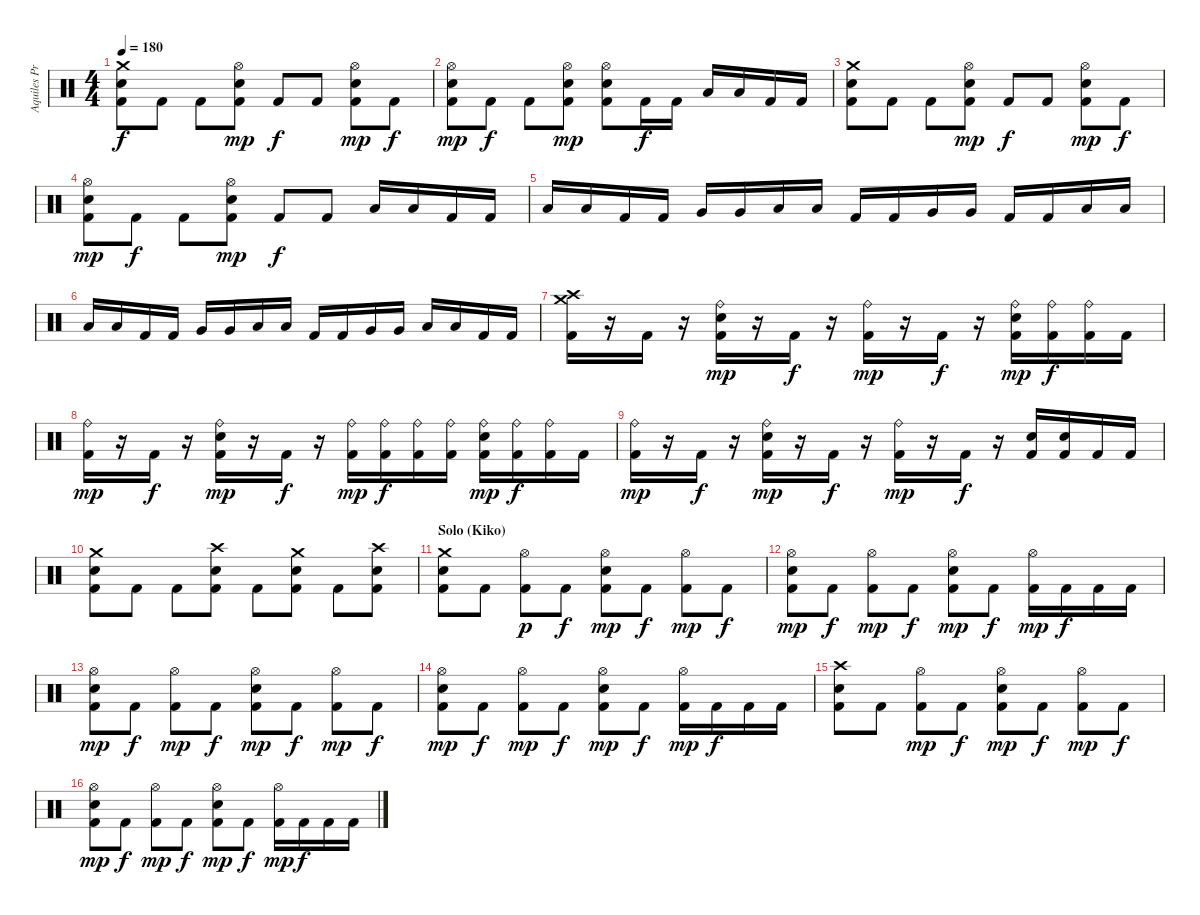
\track ("Aquiles Priester" "Aquiles Pr") {instrument percussion}
\staff {score}
\articulation defaults
\ts (4 4)
\tempo 180
\clef neutral
\ks c
("Crash medium (hit)" "Snare (hit) 2" "Kick (hit) 2").8{dy f} "Kick (hit) 2".8 "Kick (hit) 2".8 ("Hi-Hat (open)" "Snare (hit) 2" "Kick (hit) 2").8{dy mp} "Kick (hit) 2".8{dy f} "Kick (hit) 2".8 ("Hi-Hat (open)" "Snare (hit) 2" "Kick (hit) 2").8{dy mp} "Kick (hit) 2".8{dy f} |
("Hi-Hat (open)" "Snare (hit) 2" "Kick (hit) 2").8{dy mp} "Kick (hit) 2".8{dy f} "Kick (hit) 2".8 ("Hi-Hat (open)" "Snare (hit) 2" "Kick (hit) 2").8{dy mp} ("Hi-Hat (open)" "Snare (hit) 2" "Kick (hit) 2").8 "Kick (hit) 2".16{dy f} "Kick (hit) 2".16 "Low Tom (hit)".16 "Low Tom (hit)".16 "Kick (hit) 2".16 "Kick (hit) 2".16 |
("Crash medium (hit)" "Snare (hit) 2" "Kick (hit) 2").8 "Kick (hit) 2".8 "Kick (hit) 2".8 ("Hi-Hat (open)" "Snare (hit) 2" "Kick (hit) 2").8{dy mp} "Kick (hit) 2".8{dy f} "Kick (hit) 2".8 ("Hi-Hat (open)" "Snare (hit) 2" "Kick (hit) 2").8{dy mp} "Kick (hit) 2".8{dy f} |
("Hi-Hat (open)" "Snare (hit) 2" "Kick (hit) 2").8{dy mp} "Kick (hit) 2".8{dy f} "Kick (hit) 2".8 ("Hi-Hat (open)" "Snare (hit) 2" "Kick (hit) 2").8{dy mp} "Kick (hit) 2".8{dy f} "Kick (hit) 2".8 "Low Tom (hit)".16 "Low Tom (hit)".16 "Kick (hit) 2".16 "Kick (hit) 2".16 |
"Low Tom (hit)".16 "Low Tom (hit)".16 "Kick (hit) 2".16 "Kick (hit) 2".16 "Very Low Tom (hit)".16 "Very Low Tom (hit)".16 "Low Floor Tom (hit)".16 "Low Floor Tom (hit)".16 "Kick (hit) 2".16 "Kick (hit) 2".16 "Very Low Tom (hit)".16 "Very Low Tom (hit)".16 "Kick (hit) 2".16 "Kick (hit) 2".16 "Low Floor Tom (hit)".16 "Low Floor Tom (hit)".16 |
"Low Tom (hit)".16 "Low Tom (hit)".16 "Kick (hit) 2".16 "Kick (hit) 2".16 "Very Low Tom (hit)".16 "Very Low Tom (hit)".16 "Low Floor Tom (hit)".16 "Low Floor Tom (hit)".16 "Kick (hit) 2".16 "Kick (hit) 2".16 "Very Low Tom (hit)".16 "Very Low Tom (hit)".16 "Low Floor Tom (hit)".16 "Low Floor Tom (hit)".16 "Kick (hit) 2".16 "Kick (hit) 2".16 |
("Crash high (hit)" "Crash medium (hit)" "Kick (hit) 2").16 r.16 "Kick (hit) 2".16 r.16 ("Ride (bell)" "Snare (hit) 2" "Kick (hit) 2").16{dy mp} r.16 "Kick (hit) 2".16{dy f} r.16 ("Ride (bell)" "Kick (hit) 2").16{dy mp} r.16 "Kick (hit) 2".16{dy f} r.16 ("Ride (bell)" "Snare (hit) 2" "Kick (hit) 2").16{dy mp} ("Ride (bell)" "Kick (hit) 2").16{dy f} ("Ride (bell)" "Kick (hit) 2").16 "Kick (hit) 2".16 |
("Ride (bell)" "Kick (hit) 2").16{dy mp} r.16 "Kick (hit) 2".16{dy f} r.16 ("Ride (bell)" "Snare (hit) 2" "Kick (hit) 2").16{dy mp} r.16 "Kick (hit) 2".16{dy f} r.16 ("Ride (bell)" "Kick (hit) 2").16{dy mp} ("Ride (bell)" "Kick (hit) 2").16{dy f} ("Ride (bell)" "Kick (hit) 2").16 ("Ride (bell)" "Kick (hit) 2").16 ("Ride (bell)" "Snare (hit) 2" "Kick (hit) 2").16{dy mp} ("Ride (bell)" "Kick (hit) 2").16{dy f} ("Ride (bell)" "Kick (hit) 2").16 "Kick (hit) 2".16 |
("Ride (bell)" "Kick (hit) 2").16{dy mp} r.16 "Kick (hit) 2".16{dy f} r.16 ("Ride (bell)" "Snare (hit) 2" "Kick (hit) 2").16{dy mp} r.16 "Kick (hit) 2".16{dy f} r.16 ("Ride (bell)" "Kick (hit) 2").16{dy mp} r.16 "Kick (hit) 2".16{dy f} r.16 ("Snare (hit) 2" "Kick (hit) 2").16 ("Snare (hit) 2" "Kick (hit) 2").16 "Kick (hit) 2".16 "Kick (hit) 2".16 |
("Crash medium (hit)" "Snare (hit) 2" "Kick (hit) 2").8 "Kick (hit) 2".8 "Kick (hit) 2".8 ("Crash high (hit)" "Snare (hit) 2" "Kick (hit) 2").8 "Kick (hit) 2".8 ("Crash medium (hit)" "Snare (hit) 2" "Kick (hit) 2").8 "Kick (hit) 2".8 ("Crash high (hit)" "Snare (hit) 2" "Kick (hit) 2").8 |
\section ("" "Solo (Kiko)")
("Crash medium (hit)" "Snare (hit) 2" "Kick (hit) 2").8 "Kick (hit) 2".8 ("Hi-Hat (open)" "Kick (hit) 2").8{dy p} "Kick (hit) 2".8{dy f} ("Hi-Hat (open)" "Snare (hit) 2" "Kick (hit) 2").8{dy mp} "Kick (hit) 2".8{dy f} ("Hi-Hat (open)" "Kick (hit) 2").8{dy mp} "Kick (hit) 2".8{dy f} |
("Hi-Hat (open)" "Snare (hit) 2" "Kick (hit) 2").8{dy mp} "Kick (hit) 2".8{dy f} ("Hi-Hat (open)" "Kick (hit) 2").8{dy mp} "Kick (hit) 2".8{dy f} ("Hi-Hat (open)" "Snare (hit) 2" "Kick (hit) 2").8{dy mp} "Kick (hit) 2".8{dy f} ("Hi-Hat (open)" "Kick (hit) 2").16{dy mp} "Kick (hit) 2".16{dy f} "Kick (hit) 2".16 "Kick (hit) 2".16 |
("Hi-Hat (open)" "Snare (hit) 2" "Kick (hit) 2").8{dy mp} "Kick (hit) 2".8{dy f} ("Hi-Hat (open)" "Kick (hit) 2").8{dy mp} "Kick (hit) 2".8{dy f} ("Hi-Hat (open)" "Snare (hit) 2" "Kick (hit) 2").8{dy mp} "Kick (hit) 2".8{dy f} ("Hi-Hat (open)" "Kick (hit) 2").8{dy mp} "Kick (hit) 2".8{dy f} |
("Hi-Hat (open)" "Snare (hit) 2" "Kick (hit) 2").8{dy mp} "Kick (hit) 2".8{dy f} ("Hi-Hat (open)" "Kick (hit) 2").8{dy mp} "Kick (hit) 2".8{dy f} ("Hi-Hat (open)" "Snare (hit) 2" "Kick (hit) 2").8{dy mp} "Kick (hit) 2".8{dy f} ("Hi-Hat (open)" "Kick (hit) 2").16{dy mp} "Kick (hit) 2".16{dy f} "Kick (hit) 2".16 "Kick (hit) 2".16 |
("Crash high (hit)" "Snare (hit) 2" "Kick (hit) 2").8 "Kick (hit) 2".8 ("Hi-Hat (open)" "Kick (hit) 2").8{dy mp} "Kick (hit) 2".8{dy f} ("Hi-Hat (open)" "Snare (hit) 2" "Kick (hit) 2").8{dy mp} "Kick (hit) 2".8{dy f} ("Hi-Hat (open)" "Kick (hit) 2").8{dy mp} "Kick (hit) 2".8{dy f} |
("Hi-Hat (open)" "Snare (hit) 2" "Kick (hit) 2").8{dy mp} "Kick (hit) 2".8{dy f} ("Hi-Hat (open)" "Kick (hit) 2").8{dy mp} "Kick (hit) 2".8{dy f} ("Hi-Hat (open)" "Snare (hit) 2" "Kick (hit) 2").8{dy mp} "Kick (hit) 2".8{dy f} ("Hi-Hat (open)" "Kick (hit) 2").16{dy mp} "Kick (hit) 2".16{dy f} "Kick (hit) 2".16 "Kick (hit) 2".16
